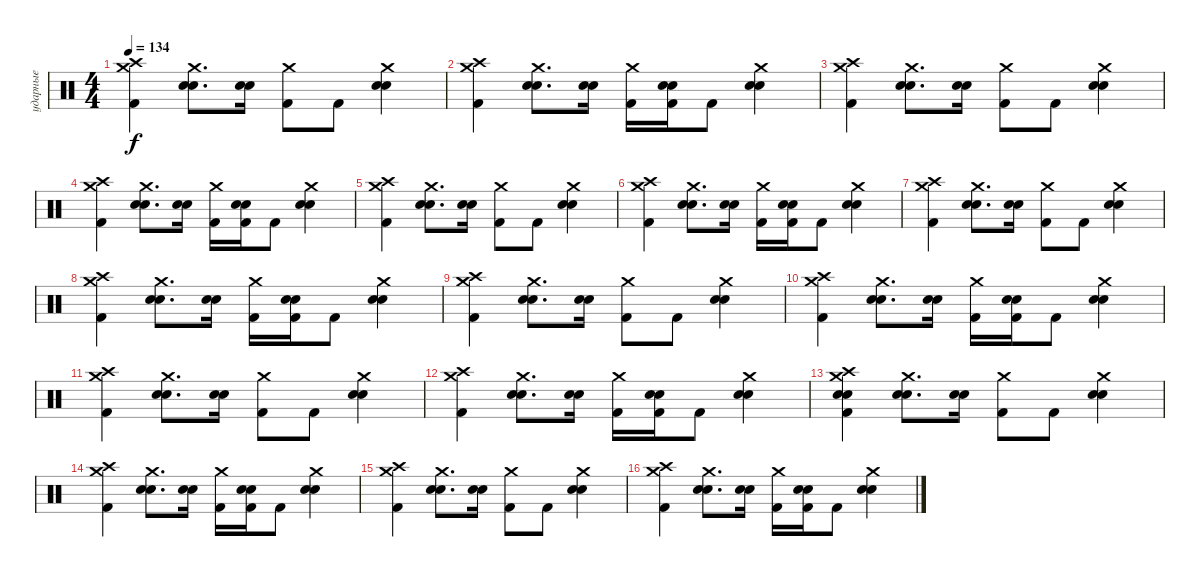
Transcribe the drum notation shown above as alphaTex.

\track ("ударные" "ударные") {instrument percussion}
\staff {score}
\articulation defaults
\ts (4 4)
\tempo 134
\clef neutral
\ks c
("Crash high (hit)" "Crash medium (hit)" "Kick (hit) 2").4{dy f} ("Crash medium (hit)" "Snare (hit) 2" "Electric Snare (hit)").8{d} ("Snare (hit) 2" "Electric Snare (hit)").16 ("Crash medium (hit)" "Kick (hit) 2").8 "Kick (hit) 2".8 ("Crash medium (hit)" "Snare (hit) 2" "Electric Snare (hit)").4 |
("Crash high (hit)" "Crash medium (hit)" "Kick (hit) 2").4 ("Crash medium (hit)" "Snare (hit) 2" "Electric Snare (hit)").8{d} ("Snare (hit) 2" "Electric Snare (hit)").16 ("Crash medium (hit)" "Kick (hit) 2").16 ("Snare (hit) 2" "Electric Snare (hit)" "Kick (hit) 2").16 "Kick (hit) 2".8 ("Crash medium (hit)" "Snare (hit) 2" "Electric Snare (hit)").4 |
("Crash high (hit)" "Crash medium (hit)" "Kick (hit) 2").4 ("Crash medium (hit)" "Snare (hit) 2" "Electric Snare (hit)").8{d} ("Snare (hit) 2" "Electric Snare (hit)").16 ("Crash medium (hit)" "Kick (hit) 2").8 "Kick (hit) 2".8 ("Crash medium (hit)" "Snare (hit) 2" "Electric Snare (hit)").4 |
("Crash high (hit)" "Crash medium (hit)" "Kick (hit) 2").4 ("Crash medium (hit)" "Snare (hit) 2" "Electric Snare (hit)").8{d} ("Snare (hit) 2" "Electric Snare (hit)").16 ("Crash medium (hit)" "Kick (hit) 2").16 ("Snare (hit) 2" "Electric Snare (hit)" "Kick (hit) 2").16 "Kick (hit) 2".8 ("Crash medium (hit)" "Snare (hit) 2" "Electric Snare (hit)").4 |
("Crash high (hit)" "Crash medium (hit)" "Kick (hit) 2").4 ("Crash medium (hit)" "Snare (hit) 2" "Electric Snare (hit)").8{d} ("Snare (hit) 2" "Electric Snare (hit)").16 ("Crash medium (hit)" "Kick (hit) 2").8 "Kick (hit) 2".8 ("Crash medium (hit)" "Snare (hit) 2" "Electric Snare (hit)").4 |
("Crash high (hit)" "Crash medium (hit)" "Kick (hit) 2").4 ("Crash medium (hit)" "Snare (hit) 2" "Electric Snare (hit)").8{d} ("Snare (hit) 2" "Electric Snare (hit)").16 ("Crash medium (hit)" "Kick (hit) 2").16 ("Snare (hit) 2" "Electric Snare (hit)" "Kick (hit) 2").16 "Kick (hit) 2".8 ("Crash medium (hit)" "Snare (hit) 2" "Electric Snare (hit)").4 |
("Crash high (hit)" "Crash medium (hit)" "Kick (hit) 2").4 ("Crash medium (hit)" "Snare (hit) 2" "Electric Snare (hit)").8{d} ("Snare (hit) 2" "Electric Snare (hit)").16 ("Crash medium (hit)" "Kick (hit) 2").8 "Kick (hit) 2".8 ("Crash medium (hit)" "Snare (hit) 2" "Electric Snare (hit)").4 |
("Crash high (hit)" "Crash medium (hit)" "Kick (hit) 2").4 ("Crash medium (hit)" "Snare (hit) 2" "Electric Snare (hit)").8{d} ("Snare (hit) 2" "Electric Snare (hit)").16 ("Crash medium (hit)" "Kick (hit) 2").16 ("Snare (hit) 2" "Electric Snare (hit)" "Kick (hit) 2").16 "Kick (hit) 2".8 ("Crash medium (hit)" "Snare (hit) 2" "Electric Snare (hit)").4 |
("Crash high (hit)" "Crash medium (hit)" "Kick (hit) 2").4 ("Crash medium (hit)" "Snare (hit) 2" "Electric Snare (hit)").8{d} ("Snare (hit) 2" "Electric Snare (hit)").16 ("Crash medium (hit)" "Kick (hit) 2").8 "Kick (hit) 2".8 ("Crash medium (hit)" "Snare (hit) 2" "Electric Snare (hit)").4 |
("Crash high (hit)" "Crash medium (hit)" "Kick (hit) 2").4 ("Crash medium (hit)" "Snare (hit) 2" "Electric Snare (hit)").8{d} ("Snare (hit) 2" "Electric Snare (hit)").16 ("Crash medium (hit)" "Kick (hit) 2").16 ("Snare (hit) 2" "Electric Snare (hit)" "Kick (hit) 2").16 "Kick (hit) 2".8 ("Crash medium (hit)" "Snare (hit) 2" "Electric Snare (hit)").4 |
("Crash high (hit)" "Crash medium (hit)" "Kick (hit) 2").4 ("Crash medium (hit)" "Snare (hit) 2" "Electric Snare (hit)").8{d} ("Snare (hit) 2" "Electric Snare (hit)").16 ("Crash medium (hit)" "Kick (hit) 2").8 "Kick (hit) 2".8 ("Crash medium (hit)" "Snare (hit) 2" "Electric Snare (hit)").4 |
("Crash high (hit)" "Crash medium (hit)" "Kick (hit) 2").4 ("Crash medium (hit)" "Snare (hit) 2" "Electric Snare (hit)").8{d} ("Snare (hit) 2" "Electric Snare (hit)").16 ("Crash medium (hit)" "Kick (hit) 2").16 ("Snare (hit) 2" "Electric Snare (hit)" "Kick (hit) 2").16 "Kick (hit) 2".8 ("Crash medium (hit)" "Snare (hit) 2" "Electric Snare (hit)").4 |
("Crash high (hit)" "Crash medium (hit)" "Snare (hit) 2" "Electric Snare (hit)" "Kick (hit) 2").4 ("Crash medium (hit)" "Snare (hit) 2" "Electric Snare (hit)").8{d} ("Snare (hit) 2" "Electric Snare (hit)").16 ("Crash medium (hit)" "Kick (hit) 2").8 "Kick (hit) 2".8 ("Crash medium (hit)" "Snare (hit) 2" "Electric Snare (hit)").4 |
("Crash high (hit)" "Crash medium (hit)" "Kick (hit) 2").4 ("Crash medium (hit)" "Snare (hit) 2" "Electric Snare (hit)").8{d} ("Snare (hit) 2" "Electric Snare (hit)").16 ("Crash medium (hit)" "Kick (hit) 2").16 ("Snare (hit) 2" "Electric Snare (hit)" "Kick (hit) 2").16 "Kick (hit) 2".8 ("Crash medium (hit)" "Snare (hit) 2" "Electric Snare (hit)").4 |
("Crash high (hit)" "Crash medium (hit)" "Kick (hit) 2").4 ("Crash medium (hit)" "Snare (hit) 2" "Electric Snare (hit)").8{d} ("Snare (hit) 2" "Electric Snare (hit)").16 ("Crash medium (hit)" "Kick (hit) 2").8 "Kick (hit) 2".8 ("Crash medium (hit)" "Snare (hit) 2" "Electric Snare (hit)").4 |
("Crash high (hit)" "Crash medium (hit)" "Kick (hit) 2").4 ("Crash medium (hit)" "Snare (hit) 2" "Electric Snare (hit)").8{d} ("Snare (hit) 2" "Electric Snare (hit)").16 ("Crash medium (hit)" "Kick (hit) 2").16 ("Snare (hit) 2" "Electric Snare (hit)" "Kick (hit) 2").16 "Kick (hit) 2".8 ("Crash medium (hit)" "Snare (hit) 2" "Electric Snare (hit)").4
